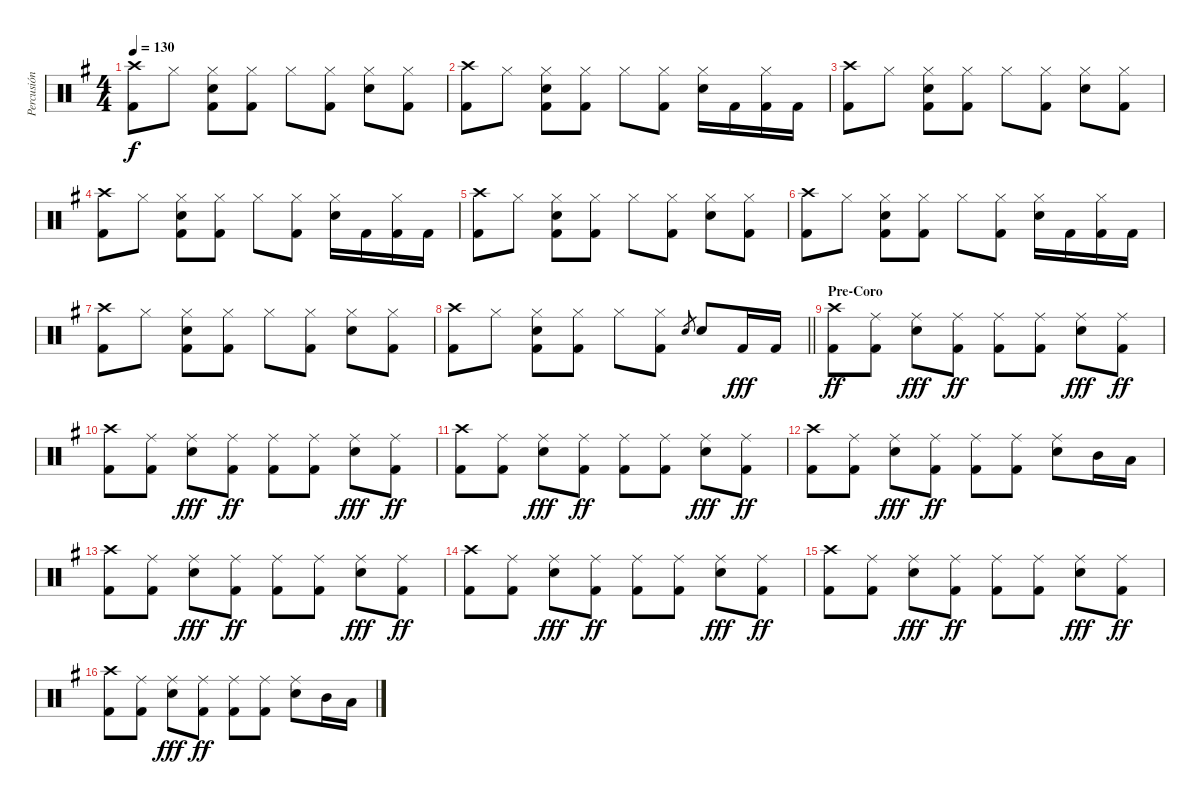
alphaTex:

\track ("Percusión" "Percusión") {instrument percussion}
\staff {score}
\articulation defaults
\ts (4 4)
\tempo 130
\clef neutral
\ks g
("Crash high (hit)" "Kick (hit) 2").8{dy f} "Hi-Hat (closed)".8 ("Hi-Hat (closed)" "Snare (hit) 2" "Kick (hit) 2").8 ("Hi-Hat (closed)" "Kick (hit) 2").8 "Hi-Hat (closed)".8 ("Hi-Hat (closed)" "Kick (hit) 2").8 ("Hi-Hat (closed)" "Snare (hit) 2").8 ("Hi-Hat (closed)" "Kick (hit) 2").8 |
("Crash high (hit)" "Kick (hit) 2").8 "Hi-Hat (closed)".8 ("Hi-Hat (closed)" "Snare (hit) 2" "Kick (hit) 2").8 ("Hi-Hat (closed)" "Kick (hit) 2").8 "Hi-Hat (closed)".8 ("Hi-Hat (closed)" "Kick (hit) 2").8 ("Hi-Hat (closed)" "Snare (hit) 2").16 "Kick (hit) 2".16 ("Hi-Hat (closed)" "Kick (hit) 2").16 "Kick (hit) 2".16 |
("Crash high (hit)" "Kick (hit) 2").8 "Hi-Hat (closed)".8 ("Hi-Hat (closed)" "Snare (hit) 2" "Kick (hit) 2").8 ("Hi-Hat (closed)" "Kick (hit) 2").8 "Hi-Hat (closed)".8 ("Hi-Hat (closed)" "Kick (hit) 2").8 ("Hi-Hat (closed)" "Snare (hit) 2").8 ("Hi-Hat (closed)" "Kick (hit) 2").8 |
("Crash high (hit)" "Kick (hit) 2").8 "Hi-Hat (closed)".8 ("Hi-Hat (closed)" "Snare (hit) 2" "Kick (hit) 2").8 ("Hi-Hat (closed)" "Kick (hit) 2").8 "Hi-Hat (closed)".8 ("Hi-Hat (closed)" "Kick (hit) 2").8 ("Hi-Hat (closed)" "Snare (hit) 2").16 "Kick (hit) 2".16 ("Hi-Hat (closed)" "Kick (hit) 2").16 "Kick (hit) 2".16 |
("Crash high (hit)" "Kick (hit) 2").8 "Hi-Hat (closed)".8 ("Hi-Hat (closed)" "Snare (hit) 2" "Kick (hit) 2").8 ("Hi-Hat (closed)" "Kick (hit) 2").8 "Hi-Hat (closed)".8 ("Hi-Hat (closed)" "Kick (hit) 2").8 ("Hi-Hat (closed)" "Snare (hit) 2").8 ("Hi-Hat (closed)" "Kick (hit) 2").8 |
("Crash high (hit)" "Kick (hit) 2").8 "Hi-Hat (closed)".8 ("Hi-Hat (closed)" "Snare (hit) 2" "Kick (hit) 2").8 ("Hi-Hat (closed)" "Kick (hit) 2").8 "Hi-Hat (closed)".8 ("Hi-Hat (closed)" "Kick (hit) 2").8 ("Hi-Hat (closed)" "Snare (hit) 2").16 "Kick (hit) 2".16 ("Hi-Hat (closed)" "Kick (hit) 2").16 "Kick (hit) 2".16 |
("Crash high (hit)" "Kick (hit) 2").8 "Hi-Hat (closed)".8 ("Hi-Hat (closed)" "Snare (hit) 2" "Kick (hit) 2").8 ("Hi-Hat (closed)" "Kick (hit) 2").8 "Hi-Hat (closed)".8 ("Hi-Hat (closed)" "Kick (hit) 2").8 ("Hi-Hat (closed)" "Snare (hit) 2").8 ("Hi-Hat (closed)" "Kick (hit) 2").8 |
\barLineRight lightlight
("Crash high (hit)" "Kick (hit) 2").8 "Hi-Hat (closed)".8 ("Hi-Hat (closed)" "Snare (hit) 2" "Kick (hit) 2").8 ("Hi-Hat (closed)" "Kick (hit) 2").8 "Hi-Hat (closed)".8 ("Hi-Hat (closed)" "Kick (hit) 2").8 "Snare (hit) 2".8{gr} "Snare (hit) 2".8 "Kick (hit) 2".16{dy fff} "Kick (hit) 2".16 |
\section ("" "Pre-Coro")
("Crash high (hit)" "Kick (hit) 2").8{dy ff} ("Ride (middle)" "Kick (hit) 2").8 ("Ride (middle)" "Snare (hit) 2").8{dy fff} ("Ride (middle)" "Kick (hit) 2").8{dy ff} ("Ride (middle)" "Kick (hit) 2").8 ("Ride (middle)" "Kick (hit) 2").8 ("Ride (middle)" "Snare (hit) 2").8{dy fff} ("Ride (middle)" "Kick (hit) 2").8{dy ff} |
("Crash high (hit)" "Kick (hit) 2").8 ("Ride (middle)" "Kick (hit) 2").8 ("Ride (middle)" "Snare (hit) 2").8{dy fff} ("Ride (middle)" "Kick (hit) 2").8{dy ff} ("Ride (middle)" "Kick (hit) 2").8 ("Ride (middle)" "Kick (hit) 2").8 ("Ride (middle)" "Snare (hit) 2").8{dy fff} ("Ride (middle)" "Kick (hit) 2").8{dy ff} |
("Crash high (hit)" "Kick (hit) 2").8 ("Ride (middle)" "Kick (hit) 2").8 ("Ride (middle)" "Snare (hit) 2").8{dy fff} ("Ride (middle)" "Kick (hit) 2").8{dy ff} ("Ride (middle)" "Kick (hit) 2").8 ("Ride (middle)" "Kick (hit) 2").8 ("Ride (middle)" "Snare (hit) 2").8{dy fff} ("Ride (middle)" "Kick (hit) 2").8{dy ff} |
("Crash high (hit)" "Kick (hit) 2").8 ("Ride (middle)" "Kick (hit) 2").8 ("Ride (middle)" "Snare (hit) 2").8{dy fff} ("Ride (middle)" "Kick (hit) 2").8{dy ff} ("Ride (middle)" "Kick (hit) 2").8 ("Ride (middle)" "Kick (hit) 2").8 ("Ride (middle)" "Snare (hit) 2").8 "Mid Tom (hit)".16 "Low Tom (hit)".16 |
("Crash high (hit)" "Kick (hit) 2").8 ("Ride (middle)" "Kick (hit) 2").8 ("Ride (middle)" "Snare (hit) 2").8{dy fff} ("Ride (middle)" "Kick (hit) 2").8{dy ff} ("Ride (middle)" "Kick (hit) 2").8 ("Ride (middle)" "Kick (hit) 2").8 ("Ride (middle)" "Snare (hit) 2").8{dy fff} ("Ride (middle)" "Kick (hit) 2").8{dy ff} |
("Crash high (hit)" "Kick (hit) 2").8 ("Ride (middle)" "Kick (hit) 2").8 ("Ride (middle)" "Snare (hit) 2").8{dy fff} ("Ride (middle)" "Kick (hit) 2").8{dy ff} ("Ride (middle)" "Kick (hit) 2").8 ("Ride (middle)" "Kick (hit) 2").8 ("Ride (middle)" "Snare (hit) 2").8{dy fff} ("Ride (middle)" "Kick (hit) 2").8{dy ff} |
("Crash high (hit)" "Kick (hit) 2").8 ("Ride (middle)" "Kick (hit) 2").8 ("Ride (middle)" "Snare (hit) 2").8{dy fff} ("Ride (middle)" "Kick (hit) 2").8{dy ff} ("Ride (middle)" "Kick (hit) 2").8 ("Ride (middle)" "Kick (hit) 2").8 ("Ride (middle)" "Snare (hit) 2").8{dy fff} ("Ride (middle)" "Kick (hit) 2").8{dy ff} |
("Crash high (hit)" "Kick (hit) 2").8 ("Ride (middle)" "Kick (hit) 2").8 ("Ride (middle)" "Snare (hit) 2").8{dy fff} ("Ride (middle)" "Kick (hit) 2").8{dy ff} ("Ride (middle)" "Kick (hit) 2").8 ("Ride (middle)" "Kick (hit) 2").8 ("Ride (middle)" "Snare (hit) 2").8 "Mid Tom (hit)".16 "Low Tom (hit)".16
